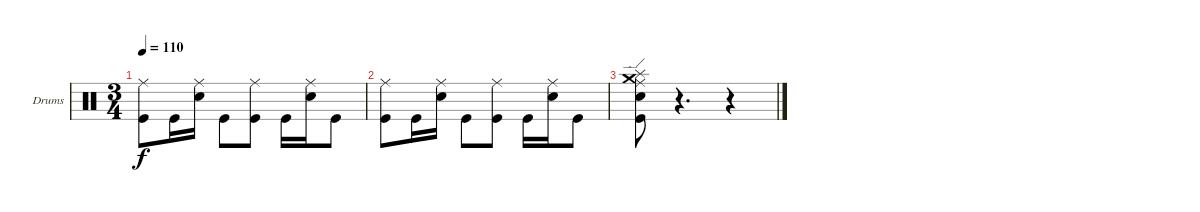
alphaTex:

\defaultSystemsLayout 4
\bracketExtendMode nobrackets
\firstSystemTrackNameOrientation horizontal
\otherSystemsTrackNameOrientation horizontal
\track ("Drumkit" "Drums") {instrument percussion}
\staff {score}
\articulation defaults
\ts (3 4)
\tempo 110
\clef neutral
\ks c
("Ride (middle)" "Kick (hit)").8{dy f} "Kick (hit)".16 ("Ride (middle)" "Snare (hit) 2").16 "Kick (hit)".8 ("Ride (middle)" "Kick (hit)").8 "Kick (hit)".16 ("Ride (middle)" "Snare (hit) 2").16 "Kick (hit)".8 |
("Ride (middle)" "Kick (hit)").8 "Kick (hit)".16 ("Ride (middle)" "Snare (hit) 2").16 "Kick (hit)".8 ("Ride (middle)" "Kick (hit)").8 "Kick (hit)".16 ("Ride (middle)" "Snare (hit) 2").16 "Kick (hit)".8 |
("Crash medium (hit)" "Splash (hit)" "Ride (edge)" "Snare (hit) 2" "Kick (hit)").8 r.4{d} r.4
